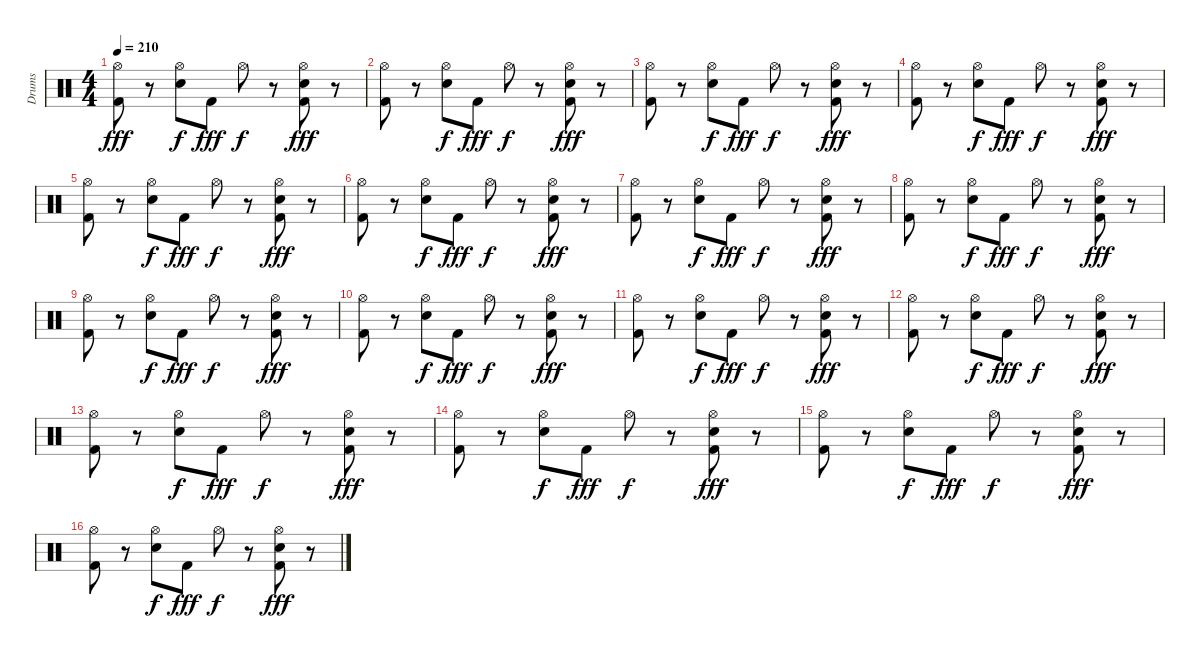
\track ("Drums" "Drums") {instrument percussion}
\staff {score}
\articulation defaults
\ts (4 4)
\tempo 210
\clef neutral
\ks c
("Hi-Hat (open)" "Kick (hit) 2").8{dy fff} r.8 ("Hi-Hat (open)" "Electric Snare (hit)").8{dy f} "Kick (hit) 2".8{dy fff} "Hi-Hat (open)".8{dy f} r.8 ("Hi-Hat (open)" "Electric Snare (hit)" "Kick (hit) 2").8{dy fff} r.8 |
("Hi-Hat (open)" "Kick (hit) 2").8 r.8 ("Hi-Hat (open)" "Electric Snare (hit)").8{dy f} "Kick (hit) 2".8{dy fff} "Hi-Hat (open)".8{dy f} r.8 ("Hi-Hat (open)" "Electric Snare (hit)" "Kick (hit) 2").8{dy fff} r.8 |
("Hi-Hat (open)" "Kick (hit) 2").8 r.8 ("Hi-Hat (open)" "Electric Snare (hit)").8{dy f} "Kick (hit) 2".8{dy fff} "Hi-Hat (open)".8{dy f} r.8 ("Hi-Hat (open)" "Electric Snare (hit)" "Kick (hit) 2").8{dy fff} r.8 |
("Hi-Hat (open)" "Kick (hit) 2").8 r.8 ("Hi-Hat (open)" "Electric Snare (hit)").8{dy f} "Kick (hit) 2".8{dy fff} "Hi-Hat (open)".8{dy f} r.8 ("Hi-Hat (open)" "Electric Snare (hit)" "Kick (hit) 2").8{dy fff} r.8 |
("Hi-Hat (open)" "Kick (hit) 2").8 r.8 ("Hi-Hat (open)" "Electric Snare (hit)").8{dy f} "Kick (hit) 2".8{dy fff} "Hi-Hat (open)".8{dy f} r.8 ("Hi-Hat (open)" "Electric Snare (hit)" "Kick (hit) 2").8{dy fff} r.8 |
("Hi-Hat (open)" "Kick (hit) 2").8 r.8 ("Hi-Hat (open)" "Electric Snare (hit)").8{dy f} "Kick (hit) 2".8{dy fff} "Hi-Hat (open)".8{dy f} r.8 ("Hi-Hat (open)" "Electric Snare (hit)" "Kick (hit) 2").8{dy fff} r.8 |
("Hi-Hat (open)" "Kick (hit) 2").8 r.8 ("Hi-Hat (open)" "Electric Snare (hit)").8{dy f} "Kick (hit) 2".8{dy fff} "Hi-Hat (open)".8{dy f} r.8 ("Hi-Hat (open)" "Electric Snare (hit)" "Kick (hit) 2").8{dy fff} r.8 |
("Hi-Hat (open)" "Kick (hit) 2").8 r.8 ("Hi-Hat (open)" "Electric Snare (hit)").8{dy f} "Kick (hit) 2".8{dy fff} "Hi-Hat (open)".8{dy f} r.8 ("Hi-Hat (open)" "Electric Snare (hit)" "Kick (hit) 2").8{dy fff} r.8 |
("Hi-Hat (open)" "Kick (hit) 2").8 r.8 ("Hi-Hat (open)" "Electric Snare (hit)").8{dy f} "Kick (hit) 2".8{dy fff} "Hi-Hat (open)".8{dy f} r.8 ("Hi-Hat (open)" "Electric Snare (hit)" "Kick (hit) 2").8{dy fff} r.8 |
("Hi-Hat (open)" "Kick (hit) 2").8 r.8 ("Hi-Hat (open)" "Electric Snare (hit)").8{dy f} "Kick (hit) 2".8{dy fff} "Hi-Hat (open)".8{dy f} r.8 ("Hi-Hat (open)" "Electric Snare (hit)" "Kick (hit) 2").8{dy fff} r.8 |
("Hi-Hat (open)" "Kick (hit) 2").8 r.8 ("Hi-Hat (open)" "Electric Snare (hit)").8{dy f} "Kick (hit) 2".8{dy fff} "Hi-Hat (open)".8{dy f} r.8 ("Hi-Hat (open)" "Electric Snare (hit)" "Kick (hit) 2").8{dy fff} r.8 |
("Hi-Hat (open)" "Kick (hit) 2").8 r.8 ("Hi-Hat (open)" "Electric Snare (hit)").8{dy f} "Kick (hit) 2".8{dy fff} "Hi-Hat (open)".8{dy f} r.8 ("Hi-Hat (open)" "Electric Snare (hit)" "Kick (hit) 2").8{dy fff} r.8 |
("Hi-Hat (open)" "Kick (hit) 2").8 r.8 ("Hi-Hat (open)" "Electric Snare (hit)").8{dy f} "Kick (hit) 2".8{dy fff} "Hi-Hat (open)".8{dy f} r.8 ("Hi-Hat (open)" "Electric Snare (hit)" "Kick (hit) 2").8{dy fff} r.8 |
("Hi-Hat (open)" "Kick (hit) 2").8 r.8 ("Hi-Hat (open)" "Electric Snare (hit)").8{dy f} "Kick (hit) 2".8{dy fff} "Hi-Hat (open)".8{dy f} r.8 ("Hi-Hat (open)" "Electric Snare (hit)" "Kick (hit) 2").8{dy fff} r.8 |
("Hi-Hat (open)" "Kick (hit) 2").8 r.8 ("Hi-Hat (open)" "Electric Snare (hit)").8{dy f} "Kick (hit) 2".8{dy fff} "Hi-Hat (open)".8{dy f} r.8 ("Hi-Hat (open)" "Electric Snare (hit)" "Kick (hit) 2").8{dy fff} r.8 |
("Hi-Hat (open)" "Kick (hit) 2").8 r.8 ("Hi-Hat (open)" "Electric Snare (hit)").8{dy f} "Kick (hit) 2".8{dy fff} "Hi-Hat (open)".8{dy f} r.8 ("Hi-Hat (open)" "Electric Snare (hit)" "Kick (hit) 2").8{dy fff} r.8
